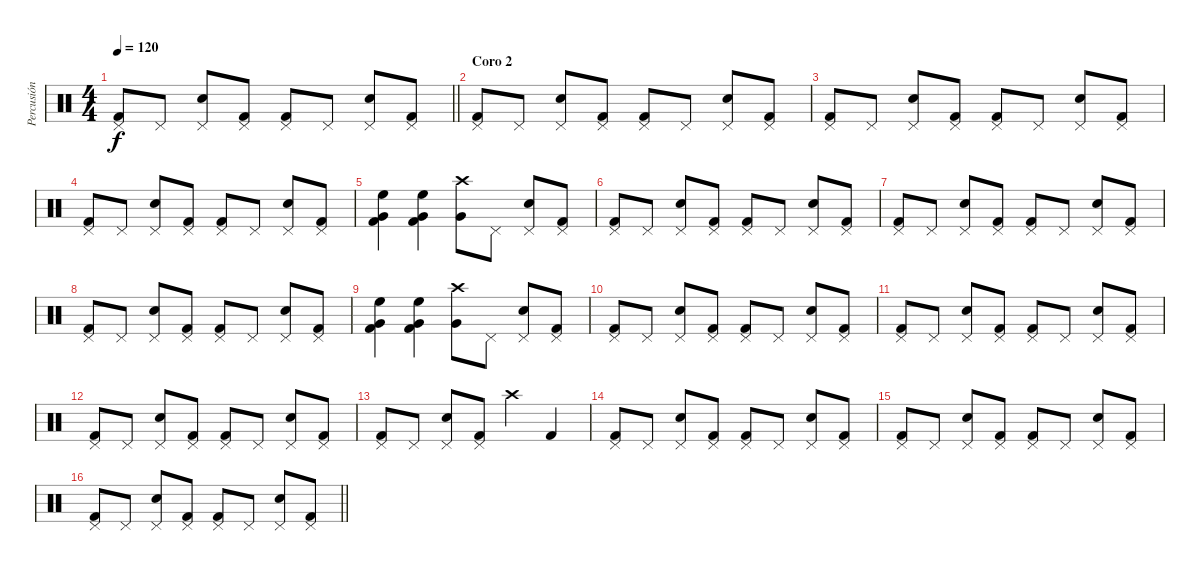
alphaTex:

\track ("Percusión" "Percusión") {instrument percussion}
\staff {score}
\articulation defaults
\ts (4 4)
\tempo 120
\clef neutral
\barLineRight lightlight
\ks c
("Pedal Hi-Hat (hit)" "Kick (hit) 2").8{dy f} "Pedal Hi-Hat (hit)".8 ("Pedal Hi-Hat (hit)" "Electric Snare (hit)").8 ("Pedal Hi-Hat (hit)" "Kick (hit) 2").8 ("Pedal Hi-Hat (hit)" "Kick (hit) 2").8 "Pedal Hi-Hat (hit)".8 ("Pedal Hi-Hat (hit)" "Electric Snare (hit)").8 ("Pedal Hi-Hat (hit)" "Kick (hit) 2").8 |
\section ("" "Coro 2")
("Pedal Hi-Hat (hit)" "Kick (hit) 2").8 "Pedal Hi-Hat (hit)".8 ("Pedal Hi-Hat (hit)" "Electric Snare (hit)").8 ("Pedal Hi-Hat (hit)" "Kick (hit) 2").8 ("Pedal Hi-Hat (hit)" "Kick (hit) 2").8 "Pedal Hi-Hat (hit)".8 ("Pedal Hi-Hat (hit)" "Electric Snare (hit)").8 ("Pedal Hi-Hat (hit)" "Kick (hit) 2").8 |
("Pedal Hi-Hat (hit)" "Kick (hit) 2").8 "Pedal Hi-Hat (hit)".8 ("Pedal Hi-Hat (hit)" "Electric Snare (hit)").8 ("Pedal Hi-Hat (hit)" "Kick (hit) 2").8 ("Pedal Hi-Hat (hit)" "Kick (hit) 2").8 "Pedal Hi-Hat (hit)".8 ("Pedal Hi-Hat (hit)" "Electric Snare (hit)").8 ("Pedal Hi-Hat (hit)" "Kick (hit) 2").8 |
("Pedal Hi-Hat (hit)" "Kick (hit) 2").8 "Pedal Hi-Hat (hit)".8 ("Pedal Hi-Hat (hit)" "Electric Snare (hit)").8 ("Pedal Hi-Hat (hit)" "Kick (hit) 2").8 ("Pedal Hi-Hat (hit)" "Kick (hit) 2").8 "Pedal Hi-Hat (hit)".8 ("Pedal Hi-Hat (hit)" "Electric Snare (hit)").8 ("Pedal Hi-Hat (hit)" "Kick (hit) 2").8 |
("Very Low Tom (hit)" "High Floor Tom (hit)" "Kick (hit) 2").4 ("Very Low Tom (hit)" "High Floor Tom (hit)" "Kick (hit) 2").4 ("Very Low Tom (hit)" "Crash high (hit)").8 "Pedal Hi-Hat (hit)".8 ("Pedal Hi-Hat (hit)" "Electric Snare (hit)").8 ("Pedal Hi-Hat (hit)" "Kick (hit) 2").8 |
("Pedal Hi-Hat (hit)" "Kick (hit) 2").8 "Pedal Hi-Hat (hit)".8 ("Pedal Hi-Hat (hit)" "Electric Snare (hit)").8 ("Pedal Hi-Hat (hit)" "Kick (hit) 2").8 ("Pedal Hi-Hat (hit)" "Kick (hit) 2").8 "Pedal Hi-Hat (hit)".8 ("Pedal Hi-Hat (hit)" "Electric Snare (hit)").8 ("Pedal Hi-Hat (hit)" "Kick (hit) 2").8 |
("Pedal Hi-Hat (hit)" "Kick (hit) 2").8 "Pedal Hi-Hat (hit)".8 ("Pedal Hi-Hat (hit)" "Electric Snare (hit)").8 ("Pedal Hi-Hat (hit)" "Kick (hit) 2").8 ("Pedal Hi-Hat (hit)" "Kick (hit) 2").8 "Pedal Hi-Hat (hit)".8 ("Pedal Hi-Hat (hit)" "Electric Snare (hit)").8 ("Pedal Hi-Hat (hit)" "Kick (hit) 2").8 |
("Pedal Hi-Hat (hit)" "Kick (hit) 2").8 "Pedal Hi-Hat (hit)".8 ("Pedal Hi-Hat (hit)" "Electric Snare (hit)").8 ("Pedal Hi-Hat (hit)" "Kick (hit) 2").8 ("Pedal Hi-Hat (hit)" "Kick (hit) 2").8 "Pedal Hi-Hat (hit)".8 ("Pedal Hi-Hat (hit)" "Electric Snare (hit)").8 ("Pedal Hi-Hat (hit)" "Kick (hit) 2").8 |
("Very Low Tom (hit)" "High Floor Tom (hit)" "Kick (hit) 2").4 ("Very Low Tom (hit)" "High Floor Tom (hit)" "Kick (hit) 2").4 ("Very Low Tom (hit)" "Crash high (hit)").8 "Pedal Hi-Hat (hit)".8 ("Pedal Hi-Hat (hit)" "Electric Snare (hit)").8 ("Pedal Hi-Hat (hit)" "Kick (hit) 2").8 |
("Pedal Hi-Hat (hit)" "Kick (hit) 2").8 "Pedal Hi-Hat (hit)".8 ("Pedal Hi-Hat (hit)" "Electric Snare (hit)").8 ("Pedal Hi-Hat (hit)" "Kick (hit) 2").8 ("Pedal Hi-Hat (hit)" "Kick (hit) 2").8 "Pedal Hi-Hat (hit)".8 ("Pedal Hi-Hat (hit)" "Electric Snare (hit)").8 ("Pedal Hi-Hat (hit)" "Kick (hit) 2").8 |
("Pedal Hi-Hat (hit)" "Kick (hit) 2").8 "Pedal Hi-Hat (hit)".8 ("Pedal Hi-Hat (hit)" "Electric Snare (hit)").8 ("Pedal Hi-Hat (hit)" "Kick (hit) 2").8 ("Pedal Hi-Hat (hit)" "Kick (hit) 2").8 "Pedal Hi-Hat (hit)".8 ("Pedal Hi-Hat (hit)" "Electric Snare (hit)").8 ("Pedal Hi-Hat (hit)" "Kick (hit) 2").8 |
("Pedal Hi-Hat (hit)" "Kick (hit) 2").8 "Pedal Hi-Hat (hit)".8 ("Pedal Hi-Hat (hit)" "Electric Snare (hit)").8 ("Pedal Hi-Hat (hit)" "Kick (hit) 2").8 ("Pedal Hi-Hat (hit)" "Kick (hit) 2").8 "Pedal Hi-Hat (hit)".8 ("Pedal Hi-Hat (hit)" "Electric Snare (hit)").8 ("Pedal Hi-Hat (hit)" "Kick (hit) 2").8 |
("Pedal Hi-Hat (hit)" "Kick (hit) 2").8 "Pedal Hi-Hat (hit)".8 ("Pedal Hi-Hat (hit)" "Electric Snare (hit)").8 ("Pedal Hi-Hat (hit)" "Kick (hit) 2").8 "Crash high (hit)".4 "Kick (hit) 2".4 |
("Pedal Hi-Hat (hit)" "Kick (hit) 2").8 "Pedal Hi-Hat (hit)".8 ("Pedal Hi-Hat (hit)" "Electric Snare (hit)").8 ("Pedal Hi-Hat (hit)" "Kick (hit) 2").8 ("Pedal Hi-Hat (hit)" "Kick (hit) 2").8 "Pedal Hi-Hat (hit)".8 ("Pedal Hi-Hat (hit)" "Electric Snare (hit)").8 ("Pedal Hi-Hat (hit)" "Kick (hit) 2").8 |
("Pedal Hi-Hat (hit)" "Kick (hit) 2").8 "Pedal Hi-Hat (hit)".8 ("Pedal Hi-Hat (hit)" "Electric Snare (hit)").8 ("Pedal Hi-Hat (hit)" "Kick (hit) 2").8 ("Pedal Hi-Hat (hit)" "Kick (hit) 2").8 "Pedal Hi-Hat (hit)".8 ("Pedal Hi-Hat (hit)" "Electric Snare (hit)").8 ("Pedal Hi-Hat (hit)" "Kick (hit) 2").8 |
\barLineRight lightlight
("Pedal Hi-Hat (hit)" "Kick (hit) 2").8 "Pedal Hi-Hat (hit)".8 ("Pedal Hi-Hat (hit)" "Electric Snare (hit)").8 ("Pedal Hi-Hat (hit)" "Kick (hit) 2").8 ("Pedal Hi-Hat (hit)" "Kick (hit) 2").8 "Pedal Hi-Hat (hit)".8 ("Pedal Hi-Hat (hit)" "Electric Snare (hit)").8 ("Pedal Hi-Hat (hit)" "Kick (hit) 2").8
